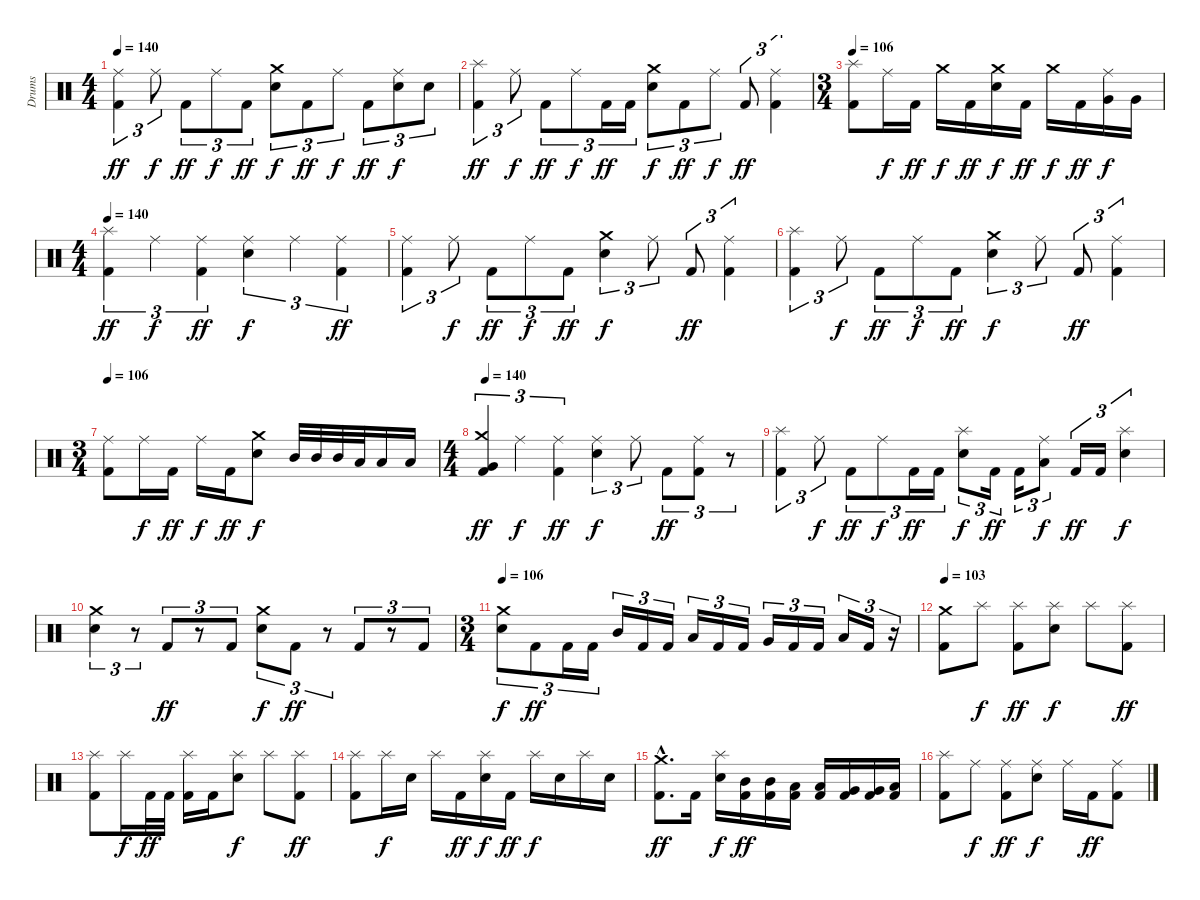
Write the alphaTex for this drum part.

\track ("Drums" "Drums") {instrument percussion}
\staff {score}
\articulation defaults
\ts (4 4)
\tempo 140
\clef neutral
\ks c
("Ride (middle)" "Kick (hit) 2").4{tu (3 2) dy ff} "Ride (middle)".8{tu (3 2) dy f} "Kick (hit) 2".8{tu (3 2) dy ff} "Ride (middle)".8{tu (3 2) dy f} "Kick (hit) 2".8{tu (3 2) dy ff} ("Crash medium (hit)" "Electric Snare (hit)").8{tu (3 2) dy f} "Kick (hit) 2".8{tu (3 2) dy ff} "Ride (middle)".8{tu (3 2) dy f} "Kick (hit) 2".8{tu (3 2) dy ff} ("Ride (middle)" "Electric Snare (hit)").8{tu (3 2) dy f} "Electric Snare (hit)".8{tu (3 2)} |
("Splash (hit)" "Kick (hit) 2").4{tu (3 2) dy ff} "Ride (middle)".8{tu (3 2) dy f} "Kick (hit) 2".8{tu (3 2) dy ff} "Ride (middle)".8{tu (3 2) dy f} "Kick (hit) 2".16{tu (3 2) dy ff} "Kick (hit) 2".16{tu (3 2)} ("Crash medium (hit)" "Electric Snare (hit)").8{tu (3 2) dy f} "Kick (hit) 2".8{tu (3 2) dy ff} "Ride (middle)".8{tu (3 2) dy f} "Kick (hit) 2".8{tu (3 2) dy ff} ("Ride (middle)" "Kick (hit) 2").4{tu (3 2)} |
\ts (3 4)
\tempo 106
("Splash (hit)" "Kick (hit) 2").8 "Ride (middle)".16{dy f} "Kick (hit) 2".16{dy ff} "Crash medium (hit)".16{dy f} "Kick (hit) 2".16{dy ff} ("Crash medium (hit)" "Electric Snare (hit)").16{dy f} "Kick (hit) 2".16{dy ff} "Crash medium (hit)".16{dy f} "Kick (hit) 2".16{dy ff} ("Ride (middle)" "Very Low Tom (hit)").16{dy f} "Very Low Tom (hit)".16 |
\ts (4 4)
\tempo 140
("Splash (hit)" "Kick (hit) 2").4{tu (3 2) dy ff} "Ride (middle)".4{tu (3 2) dy f} ("Ride (middle)" "Kick (hit) 2").4{tu (3 2) dy ff} ("Ride (middle)" "Electric Snare (hit)").4{tu (3 2) dy f} "Ride (middle)".4{tu (3 2)} ("Ride (middle)" "Kick (hit) 2").4{tu (3 2) dy ff} |
("Ride (middle)" "Kick (hit) 2").4{tu (3 2)} "Ride (middle)".8{tu (3 2) dy f} "Kick (hit) 2".8{tu (3 2) dy ff} "Ride (middle)".8{tu (3 2) dy f} "Kick (hit) 2".8{tu (3 2) dy ff} ("Crash medium (hit)" "Electric Snare (hit)").4{tu (3 2) dy f} "Ride (middle)".8{tu (3 2)} "Kick (hit) 2".8{tu (3 2) dy ff} ("Ride (middle)" "Kick (hit) 2").4{tu (3 2)} |
("Splash (hit)" "Kick (hit) 2").4{tu (3 2)} "Ride (middle)".8{tu (3 2) dy f} "Kick (hit) 2".8{tu (3 2) dy ff} "Ride (middle)".8{tu (3 2) dy f} "Kick (hit) 2".8{tu (3 2) dy ff} ("Crash medium (hit)" "Electric Snare (hit)").4{tu (3 2) dy f} "Ride (middle)".8{tu (3 2)} "Kick (hit) 2".8{tu (3 2) dy ff} ("Ride (middle)" "Kick (hit) 2").4{tu (3 2)} |
\ts (3 4)
\tempo 106
("Ride (middle)" "Kick (hit) 2").8 "Ride (middle)".16{dy f} "Kick (hit) 2".16{dy ff} "Ride (middle)".16{dy f} "Kick (hit) 2".16{dy ff} ("Crash medium (hit)" "Electric Snare (hit)").8{dy f} "Mid Tom (hit)".32 "Mid Tom (hit)".32 "Mid Tom (hit)".32 "Low Tom (hit)".32 "Low Tom (hit)".16 "Low Tom (hit)".16 |
\ts (4 4)
\tempo 140
("Crash medium (hit)" "Very Low Tom (hit)" "Kick (hit) 2").4{tu (3 2) dy ff} "Ride (middle)".4{tu (3 2) dy f} ("Ride (middle)" "Kick (hit) 2").4{tu (3 2) dy ff} ("Ride (middle)" "Electric Snare (hit)").4{tu (3 2) dy f} "Ride (middle)".8{tu (3 2)} "Kick (hit) 2".8{tu (3 2) dy ff} ("Ride (middle)" "Kick (hit) 2").8{tu (3 2)} r.8{tu (3 2)} |
("Splash (hit)" "Kick (hit) 2").4{tu (3 2)} "Ride (middle)".8{tu (3 2) dy f} "Kick (hit) 2".8{tu (3 2) dy ff} "Ride (middle)".8{tu (3 2) dy f} "Kick (hit) 2".16{tu (3 2) dy ff} "Kick (hit) 2".16{tu (3 2)} ("Splash (hit)" "Electric Snare (hit)").8{tu (3 2) dy f} "Kick (hit) 2".16{tu (3 2) dy ff} "Kick (hit) 2".16{tu (3 2)} ("Ride (middle)" "Low Tom (hit)").8{tu (3 2) dy f} "Kick (hit) 2".16{tu (3 2) dy ff} "Kick (hit) 2".16{tu (3 2)} ("Splash (hit)" "Electric Snare (hit)").4{tu (3 2) dy f} |
("Crash medium (hit)" "Electric Snare (hit)").4{tu (3 2)} r.8{tu (3 2)} "Kick (hit) 2".8{tu (3 2) dy ff} r.8{tu (3 2)} "Kick (hit) 2".8{tu (3 2)} ("Crash medium (hit)" "Electric Snare (hit)").8{tu (3 2) dy f} "Kick (hit) 2".8{tu (3 2) dy ff} r.8{tu (3 2)} "Kick (hit) 2".8{tu (3 2)} r.8{tu (3 2)} "Kick (hit) 2".8{tu (3 2)} |
\ts (3 4)
\tempo 106
("Crash medium (hit)" "Electric Snare (hit)").8{tu (3 2) dy f} "Kick (hit) 2".8{tu (3 2) dy ff} "Kick (hit) 2".16{tu (3 2)} "Kick (hit) 2".16{tu (3 2)} "Mid Tom (hit)".16{tu (3 2)} "Kick (hit) 2".16{tu (3 2)} "Kick (hit) 2".16{tu (3 2)} "Low Tom (hit)".16{tu (3 2)} "Kick (hit) 2".16{tu (3 2)} "Kick (hit) 2".16{tu (3 2)} "Very Low Tom (hit)".16{tu (3 2)} "Kick (hit) 2".16{tu (3 2)} "Kick (hit) 2".16{tu (3 2)} "Low Floor Tom (hit)".16{tu (3 2)} "Kick (hit) 2".16{tu (3 2)} r.16{tu (3 2)} |
\tempo 103
("Crash medium (hit)" "Kick (hit) 2").8 "Splash (hit)".8{dy f} ("Splash (hit)" "Kick (hit) 2").8{dy ff} ("Splash (hit)" "Electric Snare (hit)").8{dy f} "Splash (hit)".8 ("Splash (hit)" "Kick (hit) 2").8{dy ff} |
("Splash (hit)" "Kick (hit) 2").8 "Splash (hit)".16{dy f} "Kick (hit) 2".32{dy ff} "Kick (hit) 2".32 ("Splash (hit)" "Kick (hit) 2").16 "Kick (hit) 2".16 ("Splash (hit)" "Electric Snare (hit)").8{dy f} "Splash (hit)".8 ("Splash (hit)" "Kick (hit) 2").8{dy ff} |
("Splash (hit)" "Kick (hit) 2").8 "Splash (hit)".16{dy f} "Electric Snare (hit)".16 "Splash (hit)".16 "Kick (hit) 2".16{dy ff} ("Splash (hit)" "Electric Snare (hit)").16{dy f} "Kick (hit) 2".16{dy ff} "Splash (hit)".16{dy f} "Electric Snare (hit)".16 "Splash (hit)".16 "Electric Snare (hit)".16 |
("Crash medium (hit)"{hac} "Kick (hit) 2"{hac}).8{d dy ff} "Kick (hit) 2".16 ("Splash (hit)" "Electric Snare (hit)").16{dy f} ("Mid Tom (hit)" "Kick (hit) 2").16{dy ff} ("Mid Tom (hit)" "Kick (hit) 2").16 ("Low Tom (hit)" "Kick (hit) 2").16 ("Low Tom (hit)" "Kick (hit) 2").16 ("Very Low Tom (hit)" "Kick (hit) 2").16 ("Very Low Tom (hit)" "Kick (hit) 2").16 ("Low Floor Tom (hit)" "Kick (hit) 2").16 |
("Splash (hit)" "Kick (hit) 2").8 "Ride (middle)".8{dy f} ("Ride (middle)" "Kick (hit) 2").8{dy ff} ("Ride (middle)" "Electric Snare (hit)").8{dy f} "Ride (middle)".16 "Kick (hit) 2".16{dy ff} ("Ride (middle)" "Kick (hit) 2").8
